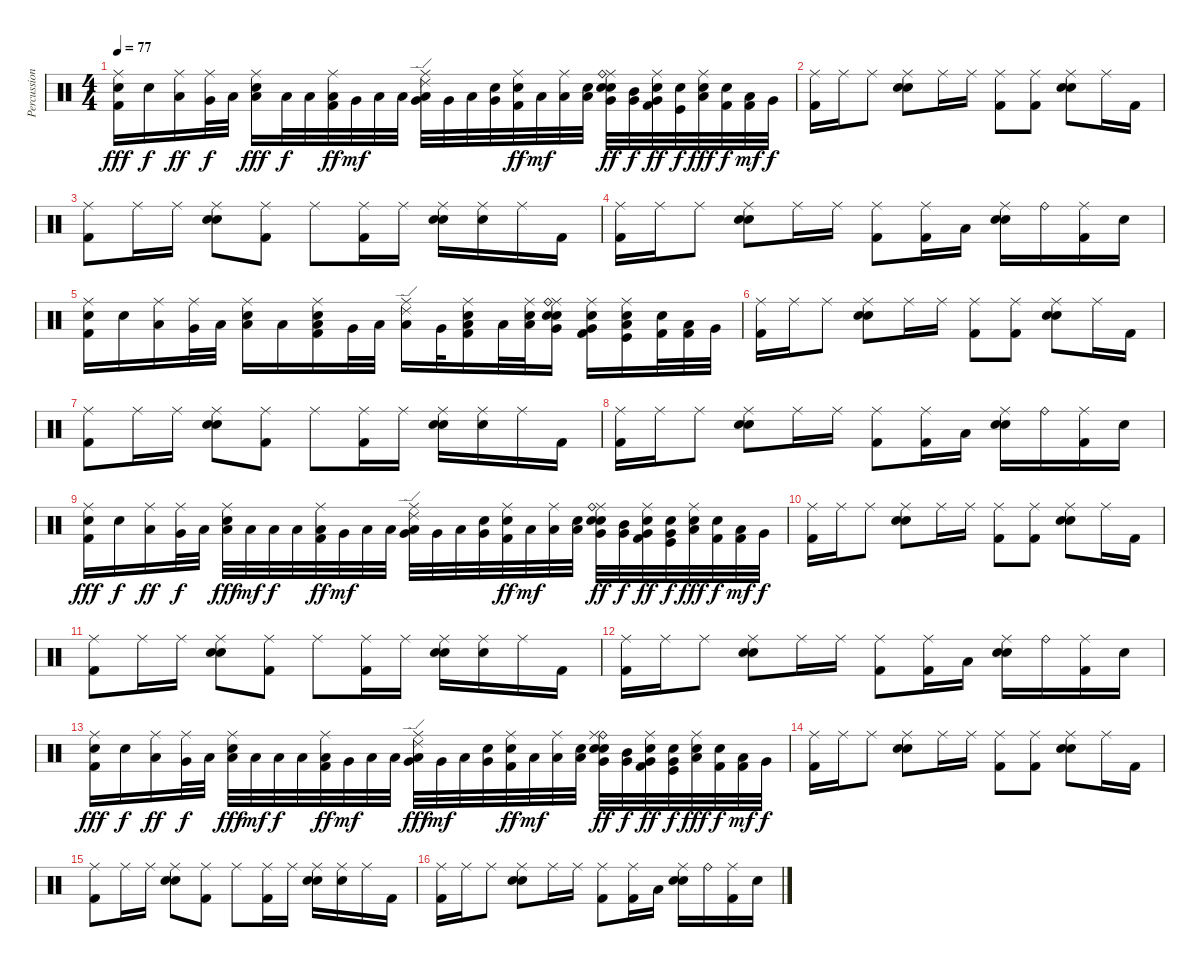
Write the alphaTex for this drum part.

\track ("Percussion" "Percussion") {instrument percussion}
\staff {score}
\articulation defaults
\ts (4 4)
\tempo 77
\clef neutral
\ks c
("Kick (hit) 2" "Electric Snare (hit)" "Ride (middle)").16{dy fff} "Snare (hit) 2".16{dy f} ("Low Tom (hit)" "Ride (middle)").16{dy ff} ("Very Low Tom (hit)" "Ride (middle)").32{dy f} "Low Floor Tom (hit)".32 ("Metronome (bell)" "Low Tom (hit)" "Ride (middle)").16{dy fff} "Low Floor Tom (hit)".32{dy f} "Low Tom (hit)".32 ("Kick (hit) 2" "Low Tom (hit)" "Ride (middle)").32{dy ff} "Very Low Tom (hit)".32{dy mf} "Low Floor Tom (hit)".32 "Low Tom (hit)".32 ("Very Low Tom (hit)" "Low Tom (hit)" "Ride (middle)" "Ride (edge) 2").32 "Very Low Tom (hit)".32 "Low Floor Tom (hit)".32 ("Snare (hit) 2" "Very Low Tom (hit)").32 ("Kick (hit) 2" "Snare (hit) 2" "Ride (middle)").32{dy ff} "Low Tom (hit)".32{dy mf} ("Low Floor Tom (hit)" "Ride (middle)").32 ("Electric Snare (hit)" "Low Floor Tom (hit)").32 ("Metronome (bell)" "Electric Snare (hit)" "Very Low Tom (hit)" "Ride (middle)" "Ride (bell)").32{dy ff} ("Mid Tom (hit)" "Very Low Tom (hit)").32{dy f} ("Kick (hit) 2" "Electric Snare (hit)" "Very Low Tom (hit)" "Ride (middle)").32{dy ff} ("Kick (hit)" "Snare (hit) 2").32{dy f} ("Snare (hit) 2" "Low Floor Tom (hit)" "Ride (middle)").32{dy fff} ("Kick (hit) 2" "Electric Snare (hit)").32{dy f} ("Kick (hit) 2" "Low Floor Tom (hit)").32{dy mf} "Very Low Tom (hit)".32{dy f} |
("Kick (hit) 2" "Ride (middle)").16 "Ride (middle)".16 "Ride (middle)".8 ("Metronome (bell)" "Electric Snare (hit)" "Ride (middle)").8 "Ride (middle)".16 "Ride (middle)".16 ("Kick (hit) 2" "Ride (middle)").8 ("Kick (hit) 2" "Ride (middle)").8 ("Metronome (bell)" "Electric Snare (hit)" "Ride (middle)").8 "Ride (middle)".16 "Kick (hit) 2".16 |
("Kick (hit) 2" "Ride (middle)").8 "Ride (middle)".16 "Ride (middle)".16 ("Metronome (bell)" "Electric Snare (hit)" "Ride (middle)").8 ("Kick (hit) 2" "Ride (middle)").8 "Ride (middle)".8 ("Kick (hit) 2" "Ride (middle)").16 "Ride (middle)".16 ("Metronome (bell)" "Electric Snare (hit)" "Ride (middle)").16 ("Electric Snare (hit)" "Ride (middle)").16 "Ride (middle)".16 "Kick (hit) 2".16 |
("Kick (hit) 2" "Ride (middle)").16 "Ride (middle)".16 "Ride (middle)".8 ("Metronome (bell)" "Electric Snare (hit)" "Ride (middle)").8 "Ride (middle)".16 "Ride (middle)".16 ("Kick (hit) 2" "Ride (middle)").8 ("Kick (hit) 2" "Ride (middle)").16 "Low Tom (hit)".16 ("Metronome (bell)" "Electric Snare (hit)" "Ride (middle)").16 "Ride (bell)".16 ("Kick (hit) 2" "Ride (middle)").16 "Electric Snare (hit)".16 |
("Kick (hit) 2" "Electric Snare (hit)" "Ride (middle)").16 "Snare (hit) 2".16 ("Low Tom (hit)" "Ride (middle)").16 ("Very Low Tom (hit)" "Ride (middle)").32 "Low Floor Tom (hit)".32 ("Metronome (bell)" "Low Tom (hit)" "Ride (middle)").16 "Low Floor Tom (hit)".16 ("Kick (hit) 2" "Snare (hit) 2" "Low Tom (hit)" "Ride (middle)").16 "Very Low Tom (hit)".32 "Low Floor Tom (hit)".32 ("Low Tom (hit)" "Ride (middle)" "Ride (edge) 2").16 "Very Low Tom (hit)".32 ("Kick (hit) 2" "Snare (hit) 2" "Low Floor Tom (hit)" "Ride (middle)").16 "Low Tom (hit)".32 ("Electric Snare (hit)" "Low Floor Tom (hit)" "Ride (middle)").32 ("Metronome (bell)" "Electric Snare (hit)" "Very Low Tom (hit)" "Ride (middle)" "Ride (bell)").16 ("Kick (hit) 2" "Electric Snare (hit)" "Very Low Tom (hit)" "Ride (middle)").16 ("Kick (hit)" "Snare (hit) 2" "Low Floor Tom (hit)" "Ride (middle)").16 ("Kick (hit) 2" "Electric Snare (hit)").32 ("Kick (hit) 2" "Low Floor Tom (hit)").32 "Very Low Tom (hit)".32 |
("Kick (hit) 2" "Ride (middle)").16 "Ride (middle)".16 "Ride (middle)".8 ("Metronome (bell)" "Electric Snare (hit)" "Ride (middle)").8 "Ride (middle)".16 "Ride (middle)".16 ("Kick (hit) 2" "Ride (middle)").8 ("Kick (hit) 2" "Ride (middle)").8 ("Metronome (bell)" "Electric Snare (hit)" "Ride (middle)").8 "Ride (middle)".16 "Kick (hit) 2".16 |
("Kick (hit) 2" "Ride (middle)").8 "Ride (middle)".16 "Ride (middle)".16 ("Metronome (bell)" "Electric Snare (hit)" "Ride (middle)").8 ("Kick (hit) 2" "Ride (middle)").8 "Ride (middle)".8 ("Kick (hit) 2" "Ride (middle)").16 "Ride (middle)".16 ("Metronome (bell)" "Electric Snare (hit)" "Ride (middle)").16 ("Electric Snare (hit)" "Ride (middle)").16 "Ride (middle)".16 "Kick (hit) 2".16 |
("Kick (hit) 2" "Ride (middle)").16 "Ride (middle)".16 "Ride (middle)".8 ("Metronome (bell)" "Electric Snare (hit)" "Ride (middle)").8 "Ride (middle)".16 "Ride (middle)".16 ("Kick (hit) 2" "Ride (middle)").8 ("Kick (hit) 2" "Ride (middle)").16 "Low Tom (hit)".16 ("Metronome (bell)" "Electric Snare (hit)" "Ride (middle)").16 "Ride (bell)".16 ("Kick (hit) 2" "Ride (middle)").16 "Electric Snare (hit)".16 |
("Electric Snare (hit)" "Kick (hit) 2" "Ride (middle)").16{dy fff} "Snare (hit) 2".16{dy f} ("Low Tom (hit)" "Ride (middle)").16{dy ff} ("Very Low Tom (hit)" "Ride (middle)").32{dy f} "Low Floor Tom (hit)".32 ("Metronome (bell)" "Low Tom (hit)" "Ride (middle)").32{dy fff} "Low Floor Tom (hit)".32{dy mf} "Low Floor Tom (hit)".32{dy f} "Low Tom (hit)".32 ("Kick (hit) 2" "Low Tom (hit)" "Ride (middle)").32{dy ff} "Very Low Tom (hit)".32{dy mf} "Low Floor Tom (hit)".32 "Low Tom (hit)".32 ("Very Low Tom (hit)" "Low Tom (hit)" "Ride (middle)" "Ride (edge) 2").32 "Very Low Tom (hit)".32 "Low Floor Tom (hit)".32 ("Snare (hit) 2" "Very Low Tom (hit)").32 ("Kick (hit) 2" "Snare (hit) 2" "Ride (middle)").32{dy ff} "Low Tom (hit)".32{dy mf} ("Low Floor Tom (hit)" "Ride (middle)").32 ("Electric Snare (hit)" "Low Floor Tom (hit)").32 ("Metronome (bell)" "Electric Snare (hit)" "Very Low Tom (hit)" "Ride (middle)" "Ride (bell)").32{dy ff} ("Very Low Tom (hit)" "Mid Tom (hit)").32{dy f} ("Kick (hit) 2" "Very Low Tom (hit)" "Electric Snare (hit)" "Ride (middle)").32{dy ff} ("Kick (hit)" "Snare (hit) 2" "Very Low Tom (hit)").32{dy f} ("Snare (hit) 2" "Low Floor Tom (hit)" "Ride (middle)").32{dy fff} ("Kick (hit) 2" "Electric Snare (hit)").32{dy f} ("Kick (hit) 2" "Low Floor Tom (hit)").32{dy mf} "Very Low Tom (hit)".32{dy f} |
("Kick (hit) 2" "Ride (middle)").16 "Ride (middle)".16 "Ride (middle)".8 ("Metronome (bell)" "Electric Snare (hit)" "Ride (middle)").8 "Ride (middle)".16 "Ride (middle)".16 ("Kick (hit) 2" "Ride (middle)").8 ("Kick (hit) 2" "Ride (middle)").8 ("Metronome (bell)" "Electric Snare (hit)" "Ride (middle)").8 "Ride (middle)".16 "Kick (hit) 2".16 |
("Kick (hit) 2" "Ride (middle)").8 "Ride (middle)".16 "Ride (middle)".16 ("Metronome (bell)" "Electric Snare (hit)" "Ride (middle)").8 ("Kick (hit) 2" "Ride (middle)").8 "Ride (middle)".8 ("Kick (hit) 2" "Ride (middle)").16 "Ride (middle)".16 ("Metronome (bell)" "Electric Snare (hit)" "Ride (middle)").16 ("Electric Snare (hit)" "Ride (middle)").16 "Ride (middle)".16 "Kick (hit) 2".16 |
("Kick (hit) 2" "Ride (middle)").16 "Ride (middle)".16 "Ride (middle)".8 ("Metronome (bell)" "Electric Snare (hit)" "Ride (middle)").8 "Ride (middle)".16 "Ride (middle)".16 ("Kick (hit) 2" "Ride (middle)").8 ("Kick (hit) 2" "Ride (middle)").16 "Low Tom (hit)".16 ("Metronome (bell)" "Electric Snare (hit)" "Ride (middle)").16 "Ride (bell)".16 ("Kick (hit) 2" "Ride (middle)").16 "Electric Snare (hit)".16 |
("Electric Snare (hit)" "Kick (hit) 2" "Ride (middle)").16{dy fff} "Snare (hit) 2".16{dy f} ("Low Tom (hit)" "Ride (middle)").16{dy ff} ("Very Low Tom (hit)" "Ride (middle)").32{dy f} "Low Floor Tom (hit)".32 ("Metronome (bell)" "Low Tom (hit)" "Ride (middle)").32{dy fff} "Low Floor Tom (hit)".32{dy mf} "Low Floor Tom (hit)".32{dy f} "Low Tom (hit)".32 ("Low Tom (hit)" "Ride (middle)" "Kick (hit) 2").32{dy ff} "Very Low Tom (hit)".32{dy mf} "Low Floor Tom (hit)".32 "Low Tom (hit)".32 ("Very Low Tom (hit)" "Low Tom (hit)" "Ride (edge) 2" "Ride (middle)").32{dy fff} "Very Low Tom (hit)".32{dy mf} "Low Floor Tom (hit)".32 ("Very Low Tom (hit)" "Snare (hit) 2").32 ("Snare (hit) 2" "Ride (middle)" "Kick (hit) 2").32{dy ff} "Low Tom (hit)".32{dy mf} ("Low Floor Tom (hit)" "Ride (middle)").32 ("Electric Snare (hit)" "Low Floor Tom (hit)").32 ("Ride (bell)" "Metronome (bell)" "Very Low Tom (hit)" "Electric Snare (hit)" "Ride (middle)").32{dy ff} ("Very Low Tom (hit)" "Mid Tom (hit)").32{dy f} ("Kick (hit) 2" "Very Low Tom (hit)" "Electric Snare (hit)" "Ride (middle)").32{dy ff} ("Snare (hit) 2" "Very Low Tom (hit)" "Kick (hit)").32{dy f} ("Snare (hit) 2" "Ride (middle)" "Low Floor Tom (hit)").32{dy fff} ("Kick (hit) 2" "Electric Snare (hit)").32{dy f} ("Kick (hit) 2" "Low Floor Tom (hit)").32{dy mf} "Very Low Tom (hit)".32{dy f} |
("Kick (hit) 2" "Ride (middle)").16 "Ride (middle)".16 "Ride (middle)".8 ("Metronome (bell)" "Electric Snare (hit)" "Ride (middle)").8 "Ride (middle)".16 "Ride (middle)".16 ("Kick (hit) 2" "Ride (middle)").8 ("Kick (hit) 2" "Ride (middle)").8 ("Metronome (bell)" "Electric Snare (hit)" "Ride (middle)").8 "Ride (middle)".16 "Kick (hit) 2".16 |
("Kick (hit) 2" "Ride (middle)").8 "Ride (middle)".16 "Ride (middle)".16 ("Metronome (bell)" "Electric Snare (hit)" "Ride (middle)").8 ("Kick (hit) 2" "Ride (middle)").8 "Ride (middle)".8 ("Kick (hit) 2" "Ride (middle)").16 "Ride (middle)".16 ("Metronome (bell)" "Electric Snare (hit)" "Ride (middle)").16 ("Electric Snare (hit)" "Ride (middle)").16 "Ride (middle)".16 "Kick (hit) 2".16 |
("Kick (hit) 2" "Ride (middle)").16 "Ride (middle)".16 "Ride (middle)".8 ("Metronome (bell)" "Electric Snare (hit)" "Ride (middle)").8 "Ride (middle)".16 "Ride (middle)".16 ("Kick (hit) 2" "Ride (middle)").8 ("Kick (hit) 2" "Ride (middle)").16 "Low Tom (hit)".16 ("Metronome (bell)" "Electric Snare (hit)" "Ride (middle)").16 "Ride (bell)".16 ("Kick (hit) 2" "Ride (middle)").16 "Electric Snare (hit)".16
